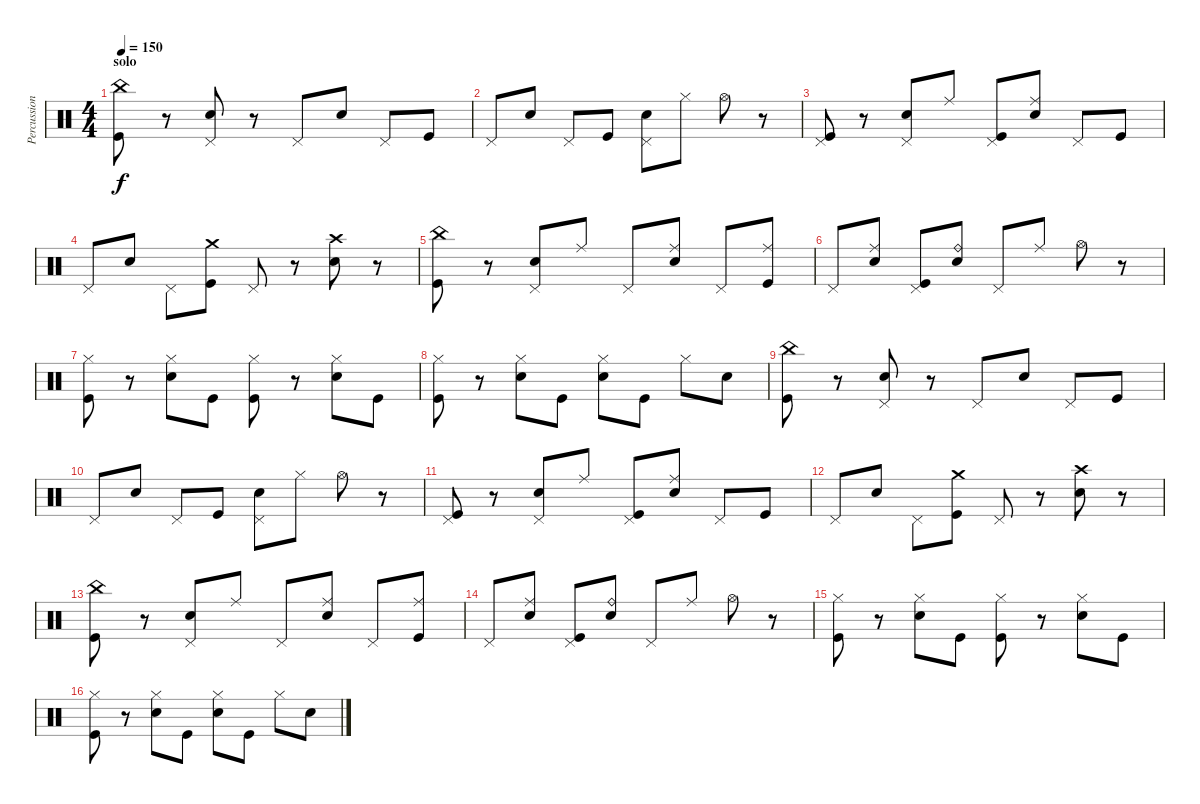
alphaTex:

\track ("Percussion" "Percussion") {instrument percussion}
\staff {score}
\articulation defaults
\ts (4 4)
\section ("" "solo")
\tempo 150
\clef neutral
\ks c
("China (hit)" "Kick (hit)").8{dy f} r.8 ("Pedal Hi-Hat (hit)" "Electric Snare (hit)").8 r.8 "Pedal Hi-Hat (hit)".8 "Electric Snare (hit)".8 "Pedal Hi-Hat (hit)".8 "Kick (hit)".8 |
"Pedal Hi-Hat (hit)".8 "Electric Snare (hit)".8 "Pedal Hi-Hat (hit)".8 "Kick (hit)".8 ("Pedal Hi-Hat (hit)" "Electric Snare (hit)").8 "Hi-Hat (closed)".8 "Hi-Hat (open)".8 r.8 |
("Pedal Hi-Hat (hit)" "Kick (hit)").8 r.8 ("Pedal Hi-Hat (hit)" "Electric Snare (hit)").8 "Ride (middle)".8 ("Pedal Hi-Hat (hit)" "Kick (hit)").8 ("Ride (middle)" "Electric Snare (hit)").8 "Pedal Hi-Hat (hit)".8 "Kick (hit)".8 |
"Pedal Hi-Hat (hit)".8 "Electric Snare (hit)".8 "Pedal Hi-Hat (hit)".8 ("Crash medium (hit)" "Kick (hit)").8 "Pedal Hi-Hat (hit)".8 r.8 ("Crash high (hit)" "Electric Snare (hit)").8 r.8 |
("China (hit)" "Kick (hit)").8 r.8 ("Pedal Hi-Hat (hit)" "Electric Snare (hit)").8 "Ride (middle)".8 "Pedal Hi-Hat (hit)".8 ("Ride (middle)" "Electric Snare (hit)").8 "Pedal Hi-Hat (hit)".8 ("Ride (middle)" "Kick (hit)").8 |
"Pedal Hi-Hat (hit)".8 ("Ride (middle)" "Electric Snare (hit)").8 ("Pedal Hi-Hat (hit)" "Kick (hit)").8 ("Ride (bell)" "Electric Snare (hit)").8 "Pedal Hi-Hat (hit)".8 "Ride (middle)".8 "Hi-Hat (open)".8 r.8 |
("Hi-Hat (closed)" "Kick (hit)").8 r.8 ("Hi-Hat (closed)" "Electric Snare (hit)").8 "Kick (hit)".8 ("Hi-Hat (closed)" "Kick (hit)").8 r.8 ("Hi-Hat (closed)" "Electric Snare (hit)").8 "Kick (hit)".8 |
("Hi-Hat (closed)" "Kick (hit)").8 r.8 ("Hi-Hat (closed)" "Electric Snare (hit)").8 "Kick (hit)".8 ("Hi-Hat (closed)" "Electric Snare (hit)").8 "Kick (hit)".8 "Hi-Hat (closed)".8 "Electric Snare (hit)".8 |
("China (hit)" "Kick (hit)").8 r.8 ("Pedal Hi-Hat (hit)" "Electric Snare (hit)").8 r.8 "Pedal Hi-Hat (hit)".8 "Electric Snare (hit)".8 "Pedal Hi-Hat (hit)".8 "Kick (hit)".8 |
"Pedal Hi-Hat (hit)".8 "Electric Snare (hit)".8 "Pedal Hi-Hat (hit)".8 "Kick (hit)".8 ("Pedal Hi-Hat (hit)" "Electric Snare (hit)").8 "Hi-Hat (closed)".8 "Hi-Hat (open)".8 r.8 |
("Pedal Hi-Hat (hit)" "Kick (hit)").8 r.8 ("Pedal Hi-Hat (hit)" "Electric Snare (hit)").8 "Ride (middle)".8 ("Pedal Hi-Hat (hit)" "Kick (hit)").8 ("Ride (middle)" "Electric Snare (hit)").8 "Pedal Hi-Hat (hit)".8 "Kick (hit)".8 |
"Pedal Hi-Hat (hit)".8 "Electric Snare (hit)".8 "Pedal Hi-Hat (hit)".8 ("Crash medium (hit)" "Kick (hit)").8 "Pedal Hi-Hat (hit)".8 r.8 ("Crash high (hit)" "Electric Snare (hit)").8 r.8 |
("China (hit)" "Kick (hit)").8 r.8 ("Pedal Hi-Hat (hit)" "Electric Snare (hit)").8 "Ride (middle)".8 "Pedal Hi-Hat (hit)".8 ("Ride (middle)" "Electric Snare (hit)").8 "Pedal Hi-Hat (hit)".8 ("Ride (middle)" "Kick (hit)").8 |
"Pedal Hi-Hat (hit)".8 ("Ride (middle)" "Electric Snare (hit)").8 ("Pedal Hi-Hat (hit)" "Kick (hit)").8 ("Ride (bell)" "Electric Snare (hit)").8 "Pedal Hi-Hat (hit)".8 "Ride (middle)".8 "Hi-Hat (open)".8 r.8 |
("Hi-Hat (closed)" "Kick (hit)").8 r.8 ("Hi-Hat (closed)" "Electric Snare (hit)").8 "Kick (hit)".8 ("Hi-Hat (closed)" "Kick (hit)").8 r.8 ("Hi-Hat (closed)" "Electric Snare (hit)").8 "Kick (hit)".8 |
("Hi-Hat (closed)" "Kick (hit)").8 r.8 ("Hi-Hat (closed)" "Electric Snare (hit)").8 "Kick (hit)".8 ("Hi-Hat (closed)" "Electric Snare (hit)").8 "Kick (hit)".8 "Hi-Hat (closed)".8 "Electric Snare (hit)".8
